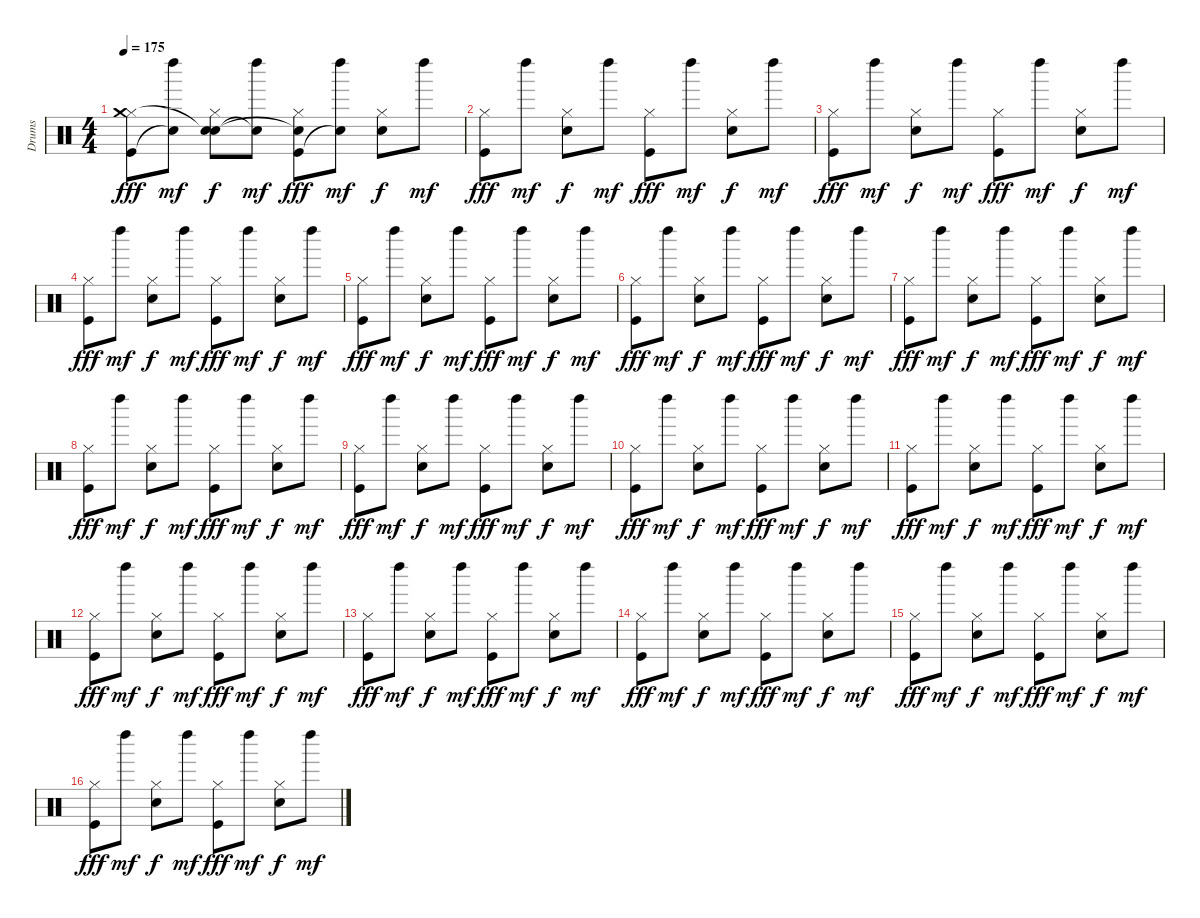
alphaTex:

\track ("Drums" "Drums") {instrument percussion}
\staff {score}
\articulation defaults
\ts (4 4)
\tempo 175
\clef neutral
\ks c
("Hi-Hat (closed)" "Kick (hit)" "Crash medium (hit)").8{dy fff} ("Left Maraca (hit)" "Snare (hit)"{t}).8{dy mf} ("Hi-Hat (closed)" "Snare (hit) 2" "Snare (hit)"{t}).8{dy f} ("Left Maraca (hit)" "Snare (hit)"{t}).8{dy mf} ("Hi-Hat (closed)" "Kick (hit)" "Snare (hit)"{t}).8{dy fff} ("Left Maraca (hit)" "Snare (hit)"{t}).8{dy mf} ("Hi-Hat (closed)" "Snare (hit) 2").8{dy f} "Left Maraca (hit)".8{dy mf} |
("Hi-Hat (closed)" "Kick (hit)").8{dy fff} "Left Maraca (hit)".8{dy mf} ("Hi-Hat (closed)" "Snare (hit) 2").8{dy f} "Left Maraca (hit)".8{dy mf} ("Hi-Hat (closed)" "Kick (hit)").8{dy fff} "Left Maraca (hit)".8{dy mf} ("Hi-Hat (closed)" "Snare (hit) 2").8{dy f} "Left Maraca (hit)".8{dy mf} |
("Hi-Hat (closed)" "Kick (hit)").8{dy fff} "Left Maraca (hit)".8{dy mf} ("Hi-Hat (closed)" "Snare (hit) 2").8{dy f} "Left Maraca (hit)".8{dy mf} ("Hi-Hat (closed)" "Kick (hit)").8{dy fff} "Left Maraca (hit)".8{dy mf} ("Hi-Hat (closed)" "Snare (hit) 2").8{dy f} "Left Maraca (hit)".8{dy mf} |
("Hi-Hat (closed)" "Kick (hit)").8{dy fff} "Left Maraca (hit)".8{dy mf} ("Hi-Hat (closed)" "Snare (hit) 2").8{dy f} "Left Maraca (hit)".8{dy mf} ("Hi-Hat (closed)" "Kick (hit)").8{dy fff} "Left Maraca (hit)".8{dy mf} ("Hi-Hat (closed)" "Snare (hit) 2").8{dy f} "Left Maraca (hit)".8{dy mf} |
("Hi-Hat (closed)" "Kick (hit)").8{dy fff} "Left Maraca (hit)".8{dy mf} ("Hi-Hat (closed)" "Snare (hit) 2").8{dy f} "Left Maraca (hit)".8{dy mf} ("Hi-Hat (closed)" "Kick (hit)").8{dy fff} "Left Maraca (hit)".8{dy mf} ("Hi-Hat (closed)" "Snare (hit) 2").8{dy f} "Left Maraca (hit)".8{dy mf} |
("Hi-Hat (closed)" "Kick (hit)").8{dy fff} "Left Maraca (hit)".8{dy mf} ("Hi-Hat (closed)" "Snare (hit) 2").8{dy f} "Left Maraca (hit)".8{dy mf} ("Hi-Hat (closed)" "Kick (hit)").8{dy fff} "Left Maraca (hit)".8{dy mf} ("Hi-Hat (closed)" "Snare (hit) 2").8{dy f} "Left Maraca (hit)".8{dy mf} |
("Hi-Hat (closed)" "Kick (hit)").8{dy fff} "Left Maraca (hit)".8{dy mf} ("Hi-Hat (closed)" "Snare (hit) 2").8{dy f} "Left Maraca (hit)".8{dy mf} ("Hi-Hat (closed)" "Kick (hit)").8{dy fff} "Left Maraca (hit)".8{dy mf} ("Hi-Hat (closed)" "Snare (hit) 2").8{dy f} "Left Maraca (hit)".8{dy mf} |
("Hi-Hat (closed)" "Kick (hit)").8{dy fff} "Left Maraca (hit)".8{dy mf} ("Hi-Hat (closed)" "Snare (hit) 2").8{dy f} "Left Maraca (hit)".8{dy mf} ("Hi-Hat (closed)" "Kick (hit)").8{dy fff} "Left Maraca (hit)".8{dy mf} ("Hi-Hat (closed)" "Snare (hit) 2").8{dy f} "Left Maraca (hit)".8{dy mf} |
("Hi-Hat (closed)" "Kick (hit)").8{dy fff} "Left Maraca (hit)".8{dy mf} ("Hi-Hat (closed)" "Snare (hit) 2").8{dy f} "Left Maraca (hit)".8{dy mf} ("Hi-Hat (closed)" "Kick (hit)").8{dy fff} "Left Maraca (hit)".8{dy mf} ("Hi-Hat (closed)" "Snare (hit) 2").8{dy f} "Left Maraca (hit)".8{dy mf} |
("Hi-Hat (closed)" "Kick (hit)").8{dy fff} "Left Maraca (hit)".8{dy mf} ("Hi-Hat (closed)" "Snare (hit) 2").8{dy f} "Left Maraca (hit)".8{dy mf} ("Hi-Hat (closed)" "Kick (hit)").8{dy fff} "Left Maraca (hit)".8{dy mf} ("Hi-Hat (closed)" "Snare (hit) 2").8{dy f} "Left Maraca (hit)".8{dy mf} |
("Hi-Hat (closed)" "Kick (hit)").8{dy fff} "Left Maraca (hit)".8{dy mf} ("Hi-Hat (closed)" "Snare (hit) 2").8{dy f} "Left Maraca (hit)".8{dy mf} ("Hi-Hat (closed)" "Kick (hit)").8{dy fff} "Left Maraca (hit)".8{dy mf} ("Hi-Hat (closed)" "Snare (hit) 2").8{dy f} "Left Maraca (hit)".8{dy mf} |
("Hi-Hat (closed)" "Kick (hit)").8{dy fff} "Left Maraca (hit)".8{dy mf} ("Hi-Hat (closed)" "Snare (hit) 2").8{dy f} "Left Maraca (hit)".8{dy mf} ("Hi-Hat (closed)" "Kick (hit)").8{dy fff} "Left Maraca (hit)".8{dy mf} ("Hi-Hat (closed)" "Snare (hit) 2").8{dy f} "Left Maraca (hit)".8{dy mf} |
("Hi-Hat (closed)" "Kick (hit)").8{dy fff} "Left Maraca (hit)".8{dy mf} ("Hi-Hat (closed)" "Snare (hit) 2").8{dy f} "Left Maraca (hit)".8{dy mf} ("Hi-Hat (closed)" "Kick (hit)").8{dy fff} "Left Maraca (hit)".8{dy mf} ("Hi-Hat (closed)" "Snare (hit) 2").8{dy f} "Left Maraca (hit)".8{dy mf} |
("Hi-Hat (closed)" "Kick (hit)").8{dy fff} "Left Maraca (hit)".8{dy mf} ("Hi-Hat (closed)" "Snare (hit) 2").8{dy f} "Left Maraca (hit)".8{dy mf} ("Hi-Hat (closed)" "Kick (hit)").8{dy fff} "Left Maraca (hit)".8{dy mf} ("Hi-Hat (closed)" "Snare (hit) 2").8{dy f} "Left Maraca (hit)".8{dy mf} |
("Hi-Hat (closed)" "Kick (hit)").8{dy fff} "Left Maraca (hit)".8{dy mf} ("Hi-Hat (closed)" "Snare (hit) 2").8{dy f} "Left Maraca (hit)".8{dy mf} ("Hi-Hat (closed)" "Kick (hit)").8{dy fff} "Left Maraca (hit)".8{dy mf} ("Hi-Hat (closed)" "Snare (hit) 2").8{dy f} "Left Maraca (hit)".8{dy mf} |
("Hi-Hat (closed)" "Kick (hit)").8{dy fff} "Left Maraca (hit)".8{dy mf} ("Hi-Hat (closed)" "Snare (hit) 2").8{dy f} "Left Maraca (hit)".8{dy mf} ("Hi-Hat (closed)" "Kick (hit)").8{dy fff} "Left Maraca (hit)".8{dy mf} ("Hi-Hat (closed)" "Snare (hit) 2").8{dy f} "Left Maraca (hit)".8{dy mf}
